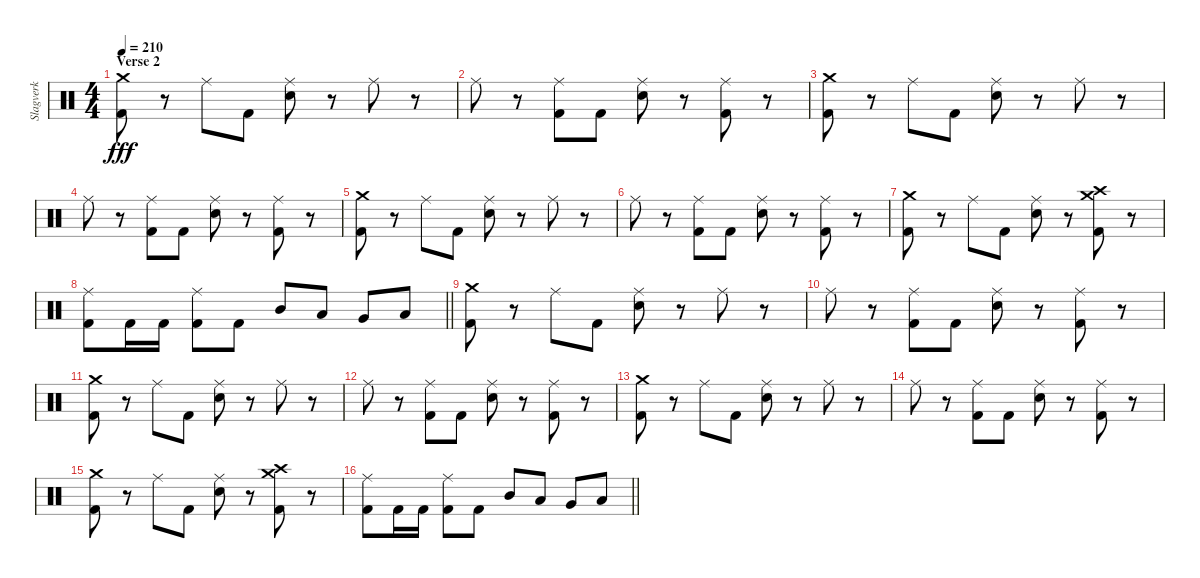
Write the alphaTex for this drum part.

\track ("Slagverk" "Slagverk") {instrument percussion}
\staff {score}
\articulation defaults
\ts (4 4)
\section ("" "Verse 2")
\tempo 210
\clef neutral
\ks c
("Crash medium (hit)" "Kick (hit) 2").8{dy fff} r.8 "Ride (middle)".8 "Kick (hit) 2".8 ("Ride (middle)" "Electric Snare (hit)").8 r.8 "Ride (middle)".8 r.8 |
"Ride (middle)".8 r.8 ("Ride (middle)" "Kick (hit) 2").8 "Kick (hit) 2".8 ("Ride (middle)" "Electric Snare (hit)").8 r.8 ("Ride (middle)" "Kick (hit) 2").8 r.8 |
("Crash medium (hit)" "Kick (hit) 2").8 r.8 "Ride (middle)".8 "Kick (hit) 2".8 ("Ride (middle)" "Electric Snare (hit)").8 r.8 "Ride (middle)".8 r.8 |
"Ride (middle)".8 r.8 ("Ride (middle)" "Kick (hit) 2").8 "Kick (hit) 2".8 ("Ride (middle)" "Electric Snare (hit)").8 r.8 ("Ride (middle)" "Kick (hit) 2").8 r.8 |
("Crash medium (hit)" "Kick (hit) 2").8 r.8 "Ride (middle)".8 "Kick (hit) 2".8 ("Ride (middle)" "Electric Snare (hit)").8 r.8 "Ride (middle)".8 r.8 |
"Ride (middle)".8 r.8 ("Ride (middle)" "Kick (hit) 2").8 "Kick (hit) 2".8 ("Ride (middle)" "Electric Snare (hit)").8 r.8 ("Ride (middle)" "Kick (hit) 2").8 r.8 |
("Crash medium (hit)" "Kick (hit) 2").8 r.8 "Ride (middle)".8 "Kick (hit) 2".8 ("Ride (middle)" "Electric Snare (hit)").8 r.8 ("Crash high (hit)" "Crash medium (hit)" "Kick (hit) 2").8 r.8 |
\barLineRight lightlight
("Ride (middle)" "Kick (hit) 2").8 "Kick (hit) 2".16 "Kick (hit) 2".16 ("Ride (middle)" "Kick (hit) 2").8 "Kick (hit) 2".8 "Mid Tom (hit)".8 "Low Tom (hit)".8 "Very Low Tom (hit)".8 "Low Floor Tom (hit)".8 |
("Crash medium (hit)" "Kick (hit) 2").8 r.8 "Ride (middle)".8 "Kick (hit) 2".8 ("Ride (middle)" "Electric Snare (hit)").8 r.8 "Ride (middle)".8 r.8 |
"Ride (middle)".8 r.8 ("Ride (middle)" "Kick (hit) 2").8 "Kick (hit) 2".8 ("Ride (middle)" "Electric Snare (hit)").8 r.8 ("Ride (middle)" "Kick (hit) 2").8 r.8 |
("Crash medium (hit)" "Kick (hit) 2").8 r.8 "Ride (middle)".8 "Kick (hit) 2".8 ("Ride (middle)" "Electric Snare (hit)").8 r.8 "Ride (middle)".8 r.8 |
"Ride (middle)".8 r.8 ("Ride (middle)" "Kick (hit) 2").8 "Kick (hit) 2".8 ("Ride (middle)" "Electric Snare (hit)").8 r.8 ("Ride (middle)" "Kick (hit) 2").8 r.8 |
("Crash medium (hit)" "Kick (hit) 2").8 r.8 "Ride (middle)".8 "Kick (hit) 2".8 ("Ride (middle)" "Electric Snare (hit)").8 r.8 "Ride (middle)".8 r.8 |
"Ride (middle)".8 r.8 ("Ride (middle)" "Kick (hit) 2").8 "Kick (hit) 2".8 ("Ride (middle)" "Electric Snare (hit)").8 r.8 ("Ride (middle)" "Kick (hit) 2").8 r.8 |
("Crash medium (hit)" "Kick (hit) 2").8 r.8 "Ride (middle)".8 "Kick (hit) 2".8 ("Ride (middle)" "Electric Snare (hit)").8 r.8 ("Crash high (hit)" "Crash medium (hit)" "Kick (hit) 2").8 r.8 |
\barLineRight lightlight
("Ride (middle)" "Kick (hit) 2").8 "Kick (hit) 2".16 "Kick (hit) 2".16 ("Ride (middle)" "Kick (hit) 2").8 "Kick (hit) 2".8 "Mid Tom (hit)".8 "Low Tom (hit)".8 "Very Low Tom (hit)".8 "Low Floor Tom (hit)".8
